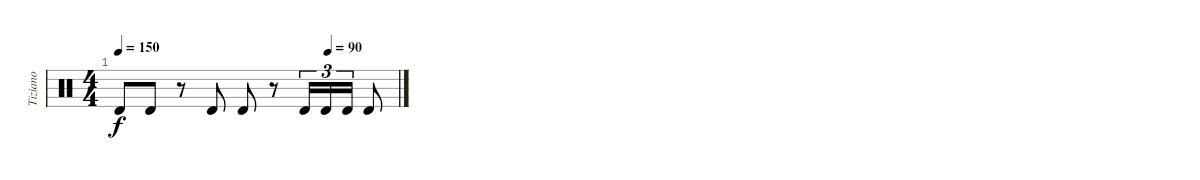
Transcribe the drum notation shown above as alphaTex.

\track ("Tiziano" "Tiziano") {instrument percussion}
\staff {score}
\articulation defaults
\ts (4 4)
\tempo 150
\tempo (90 0.75)
\clef neutral
\ks c "Timbale high (hit)".8{dy f} "Timbale high (hit)".8
r.8 "Timbale high (hit)".8 "Timbale high (hit)".8 r.8 "Timbale high (hit)".16{tu (3 2)} "Timbale high (hit)".16{tu (3 2)} "Timbale high (hit)".16{tu (3 2)} "Timbale high (hit)".8
